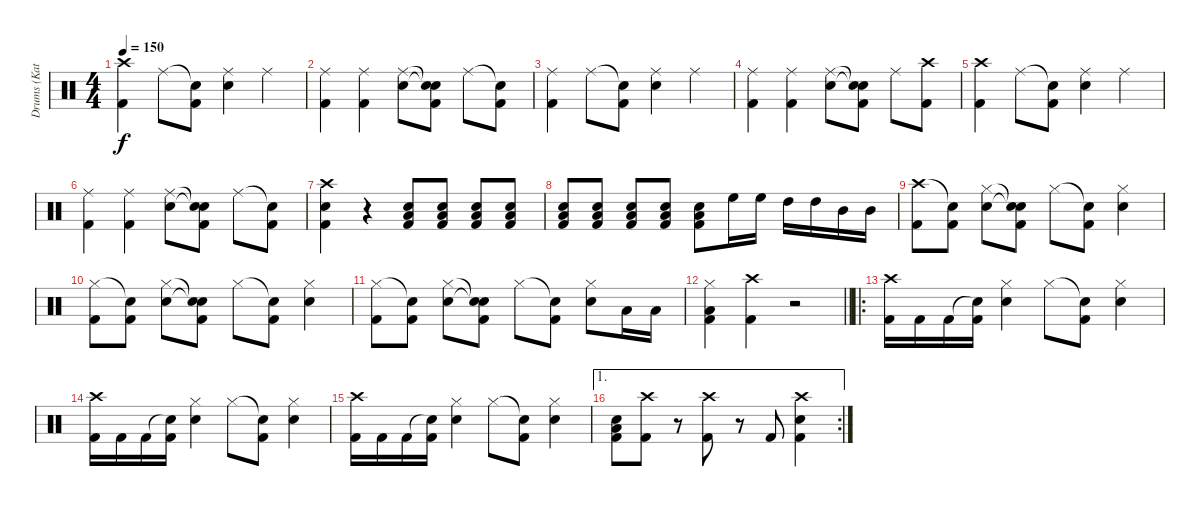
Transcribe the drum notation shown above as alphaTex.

\track ("Drums (Katsuji)" "Drums (Kat") {instrument percussion}
\staff {score}
\articulation defaults
\ts (4 4)
\tempo 150
\clef neutral
\ks c
("Crash high (hit)" "Kick (hit) 2").4{dy f} "Ride (middle)".8 ("Snare (hit)"{t} "Kick (hit) 2").8 ("Ride (middle)" "Snare (hit) 2").4 "Ride (middle)".4 |
("Ride (middle)" "Kick (hit) 2").4 ("Ride (middle)" "Kick (hit) 2").4 ("Ride (middle)" "Snare (hit) 2").8 ("Snare (hit)"{t} "Snare (hit)"{t} "Kick (hit) 2").8 "Ride (middle)".8 ("Snare (hit)"{t} "Kick (hit) 2").8 |
("Ride (middle)" "Kick (hit) 2").4 "Ride (middle)".8 ("Snare (hit)"{t} "Kick (hit) 2").8 ("Ride (middle)" "Snare (hit) 2").4 "Ride (middle)".4 |
("Ride (middle)" "Kick (hit) 2").4 ("Ride (middle)" "Kick (hit) 2").4 ("Ride (middle)" "Snare (hit) 2").8 ("Snare (hit)"{t} "Snare (hit)"{t} "Kick (hit) 2").8 "Ride (middle)".8 ("Crash high (hit)" "Kick (hit) 2").8 |
("Crash high (hit)" "Kick (hit) 2").4 "Ride (middle)".8 ("Snare (hit)"{t} "Kick (hit) 2").8 ("Ride (middle)" "Snare (hit) 2").4 "Ride (middle)".4 |
("Ride (middle)" "Kick (hit) 2").4 ("Ride (middle)" "Kick (hit) 2").4 ("Ride (middle)" "Snare (hit) 2").8 ("Snare (hit)"{t} "Snare (hit)"{t} "Kick (hit) 2").8 "Ride (middle)".8 ("Snare (hit)"{t} "Kick (hit) 2").8 |
("Crash high (hit)" "Snare (hit) 2" "Kick (hit) 2").4 r.4 ("Snare (hit) 2" "Low Tom (hit)" "Kick (hit) 2").8 ("Snare (hit) 2" "Low Tom (hit)" "Kick (hit) 2").8 ("Snare (hit) 2" "Low Tom (hit)" "Kick (hit) 2").8 ("Snare (hit) 2" "Low Tom (hit)" "Kick (hit) 2").8 |
("Snare (hit) 2" "Low Tom (hit)" "Kick (hit) 2").8 ("Snare (hit) 2" "Low Tom (hit)" "Kick (hit) 2").8 ("Snare (hit) 2" "Low Tom (hit)" "Kick (hit) 2").8 ("Snare (hit) 2" "Low Tom (hit)" "Kick (hit) 2").8 ("Snare (hit) 2" "Low Tom (hit)" "Kick (hit) 2").8 "High Floor Tom (hit)".16 "High Floor Tom (hit)".16 "High Tom (hit)".16 "High Tom (hit)".16 "Mid Tom (hit)".16 "Mid Tom (hit)".16 |
("Crash high (hit)" "Kick (hit) 2").8 ("Snare (hit)"{t} "Kick (hit) 2").8 ("Hi-Hat (closed)" "Snare (hit) 2").8 ("Snare (hit)"{t} "Snare (hit)"{t} "Kick (hit) 2").8 "Hi-Hat (closed)".8 ("Snare (hit)"{t} "Kick (hit) 2").8 ("Hi-Hat (closed)" "Snare (hit) 2").4 |
("Hi-Hat (closed)" "Kick (hit) 2").8 ("Snare (hit)"{t} "Kick (hit) 2").8 ("Hi-Hat (closed)" "Snare (hit) 2").8 ("Snare (hit)"{t} "Snare (hit)"{t} "Kick (hit) 2").8 "Hi-Hat (closed)".8 ("Snare (hit)"{t} "Kick (hit) 2").8 ("Hi-Hat (closed)" "Snare (hit) 2").4 |
("Hi-Hat (closed)" "Kick (hit) 2").8 ("Snare (hit)"{t} "Kick (hit) 2").8 ("Hi-Hat (closed)" "Snare (hit) 2").8 ("Snare (hit)"{t} "Snare (hit)"{t} "Kick (hit) 2").8 "Hi-Hat (closed)".8 ("Snare (hit)"{t} "Kick (hit) 2").8 ("Hi-Hat (closed)" "Snare (hit) 2").8 "Low Tom (hit)".16 "Low Tom (hit)".16 |
\barLineRight lightlight
("Hi-Hat (closed)" "Low Tom (hit)" "Kick (hit) 2").4 ("Crash high (hit)" "Kick (hit) 2").4 r.2 |
\ro
("Crash high (hit)" "Kick (hit) 2").16 "Kick (hit) 2".16 "Kick (hit) 2".16 ("Snare (hit)"{t} "Kick (hit) 2").16 ("Hi-Hat (closed)" "Snare (hit) 2").4 "Hi-Hat (closed)".8 ("Snare (hit)"{t} "Kick (hit) 2").8 ("Hi-Hat (closed)" "Snare (hit) 2").4 |
("Crash high (hit)" "Kick (hit) 2").16 "Kick (hit) 2".16 "Kick (hit) 2".16 ("Snare (hit)"{t} "Kick (hit) 2").16 ("Hi-Hat (closed)" "Snare (hit) 2").4 "Hi-Hat (closed)".8 ("Snare (hit)"{t} "Kick (hit) 2").8 ("Hi-Hat (closed)" "Snare (hit) 2").4 |
("Crash high (hit)" "Kick (hit) 2").16 "Kick (hit) 2".16 "Kick (hit) 2".16 ("Snare (hit)"{t} "Kick (hit) 2").16 ("Hi-Hat (closed)" "Snare (hit) 2").4 "Hi-Hat (closed)".8 ("Snare (hit)"{t} "Kick (hit) 2").8 ("Hi-Hat (closed)" "Snare (hit) 2").4 |
\ae 1
\rc 2
("Snare (hit) 2" "Low Tom (hit)" "Kick (hit) 2").8 ("Crash high (hit)" "Kick (hit) 2").8 r.8 ("Crash high (hit)" "Kick (hit) 2").8 r.8 "Kick (hit) 2".8 ("Crash high (hit)" "Snare (hit) 2" "Kick (hit) 2").4
